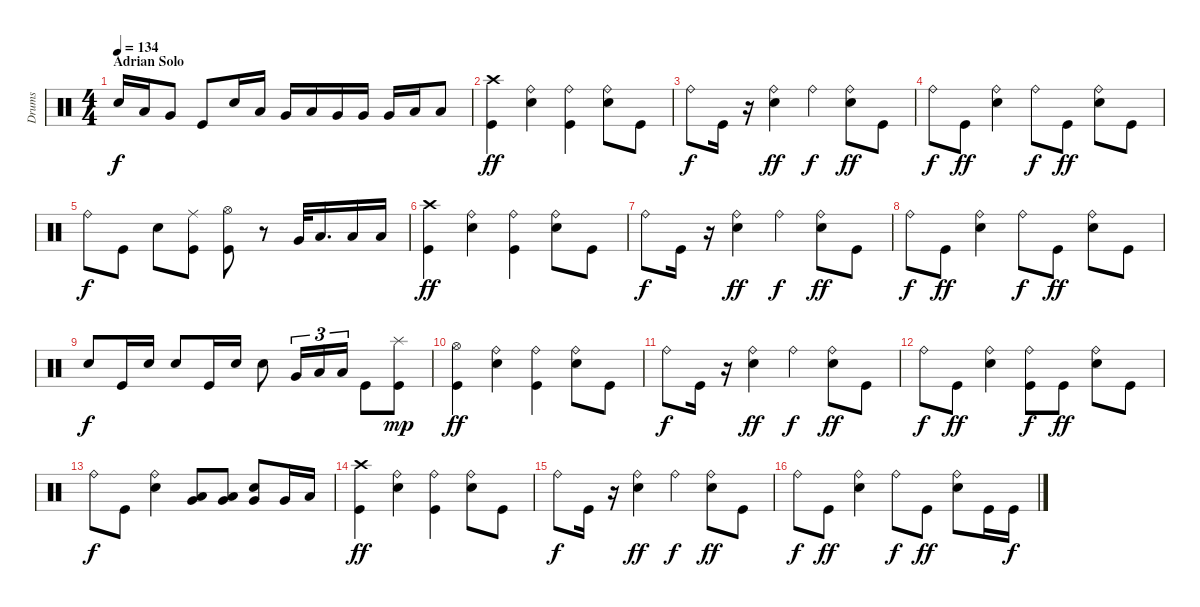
\track ("Drums" "Drums") {instrument percussion}
\staff {score}
\articulation defaults
\ts (4 4)
\section ("" "Adrian Solo")
\tempo 134
\clef neutral
\ks c "Electric Snare (hit)".16{dy f} "Low Tom (hit)".16 "Very Low Tom (hit)".8 "Kick (hit)".8 "Electric Snare (hit)".16 "Low Tom (hit)".16 "Very Low Tom (hit)".16 "Low Floor Tom (hit)".16 "Very Low Tom (hit)".16 "Very Low Tom (hit)".16 "Very Low Tom (hit)".16 "Low Floor Tom (hit)".16 "Low Floor Tom (hit)".8
|
("Crash high (hit)" "Kick (hit)").4{dy ff} ("Ride (bell)" "Electric Snare (hit)").4 ("Ride (bell)" "Kick (hit)").4 ("Ride (bell)" "Electric Snare (hit)").8 "Kick (hit)".8 |
"Ride (bell)".8{dy f} "Kick (hit)".16 r.16 ("Ride (bell)" "Electric Snare (hit)").4{dy ff} "Ride (bell)".4{dy f} ("Ride (bell)" "Electric Snare (hit)").8{dy ff} "Kick (hit)".8 |
"Ride (bell)".8{dy f} "Kick (hit)".8{dy ff} ("Ride (bell)" "Electric Snare (hit)").4 "Ride (bell)".8{dy f} "Kick (hit)".8{dy ff} ("Ride (bell)" "Electric Snare (hit)").8 "Kick (hit)".8 |
"Ride (bell)".8{dy f} "Kick (hit)".8 "Electric Snare (hit)".8 ("Ride (middle)" "Kick (hit)").8 ("Hi-Hat (open)" "Kick (hit)").8 r.8 "Very Low Tom (hit)".32 "Low Tom (hit)".16{d} "Low Floor Tom (hit)".16 "Low Floor Tom (hit)".16 |
("Crash high (hit)" "Kick (hit)").4{dy ff} ("Ride (bell)" "Electric Snare (hit)").4 ("Ride (bell)" "Kick (hit)").4 ("Ride (bell)" "Electric Snare (hit)").8 "Kick (hit)".8 |
"Ride (bell)".8{dy f} "Kick (hit)".16 r.16 ("Ride (bell)" "Electric Snare (hit)").4{dy ff} "Ride (bell)".4{dy f} ("Ride (bell)" "Electric Snare (hit)").8{dy ff} "Kick (hit)".8 |
"Ride (bell)".8{dy f} "Kick (hit)".8{dy ff} ("Ride (bell)" "Electric Snare (hit)").4 "Ride (bell)".8{dy f} "Kick (hit)".8{dy ff} ("Ride (bell)" "Electric Snare (hit)").8 "Kick (hit)".8 |
"Electric Snare (hit)".8{dy f} "Kick (hit)".16 "Electric Snare (hit)".16 "Electric Snare (hit)".8 "Kick (hit)".16 "Electric Snare (hit)".16 "Electric Snare (hit)".8 "Very Low Tom (hit)".16{tu (3 2)} "Low Floor Tom (hit)".16{tu (3 2)} "Low Floor Tom (hit)".16{tu (3 2)} "Kick (hit)".8 ("Splash (hit)" "Kick (hit)").8{dy mp} |
("Hi-Hat (open)" "Kick (hit)").4{dy ff} ("Ride (bell)" "Electric Snare (hit)").4 ("Ride (bell)" "Kick (hit)").4 ("Ride (bell)" "Electric Snare (hit)").8 "Kick (hit)".8 |
"Ride (bell)".8{dy f} "Kick (hit)".16 r.16 ("Ride (bell)" "Electric Snare (hit)").4{dy ff} "Ride (bell)".4{dy f} ("Ride (bell)" "Electric Snare (hit)").8{dy ff} "Kick (hit)".8 |
"Ride (bell)".8{dy f} "Kick (hit)".8{dy ff} ("Ride (bell)" "Electric Snare (hit)").4 ("Ride (bell)" "Kick (hit)").8{dy f} "Kick (hit)".8{dy ff} ("Ride (bell)" "Electric Snare (hit)").8 "Kick (hit)".8 |
"Ride (bell)".8{dy f} "Kick (hit)".8 ("Ride (bell)" "Electric Snare (hit)").4 ("Low Floor Tom (hit)" "Very Low Tom (hit)").8 ("Low Floor Tom (hit)" "Very Low Tom (hit)").8 ("Electric Snare (hit)" "Very Low Tom (hit)").8 "Very Low Tom (hit)".16 "Low Floor Tom (hit)".16 |
("Crash high (hit)" "Kick (hit)").4{dy ff} ("Ride (bell)" "Electric Snare (hit)").4 ("Ride (bell)" "Kick (hit)").4 ("Ride (bell)" "Electric Snare (hit)").8 "Kick (hit)".8 |
"Ride (bell)".8{dy f} "Kick (hit)".16 r.16 ("Ride (bell)" "Electric Snare (hit)").4{dy ff} "Ride (bell)".4{dy f} ("Ride (bell)" "Electric Snare (hit)").8{dy ff} "Kick (hit)".8 |
"Ride (bell)".8{dy f} "Kick (hit)".8{dy ff} ("Ride (bell)" "Electric Snare (hit)").4 "Ride (bell)".8{dy f} "Kick (hit)".8{dy ff} ("Ride (bell)" "Electric Snare (hit)").8 "Kick (hit)".16 "Kick (hit)".16{dy f}
